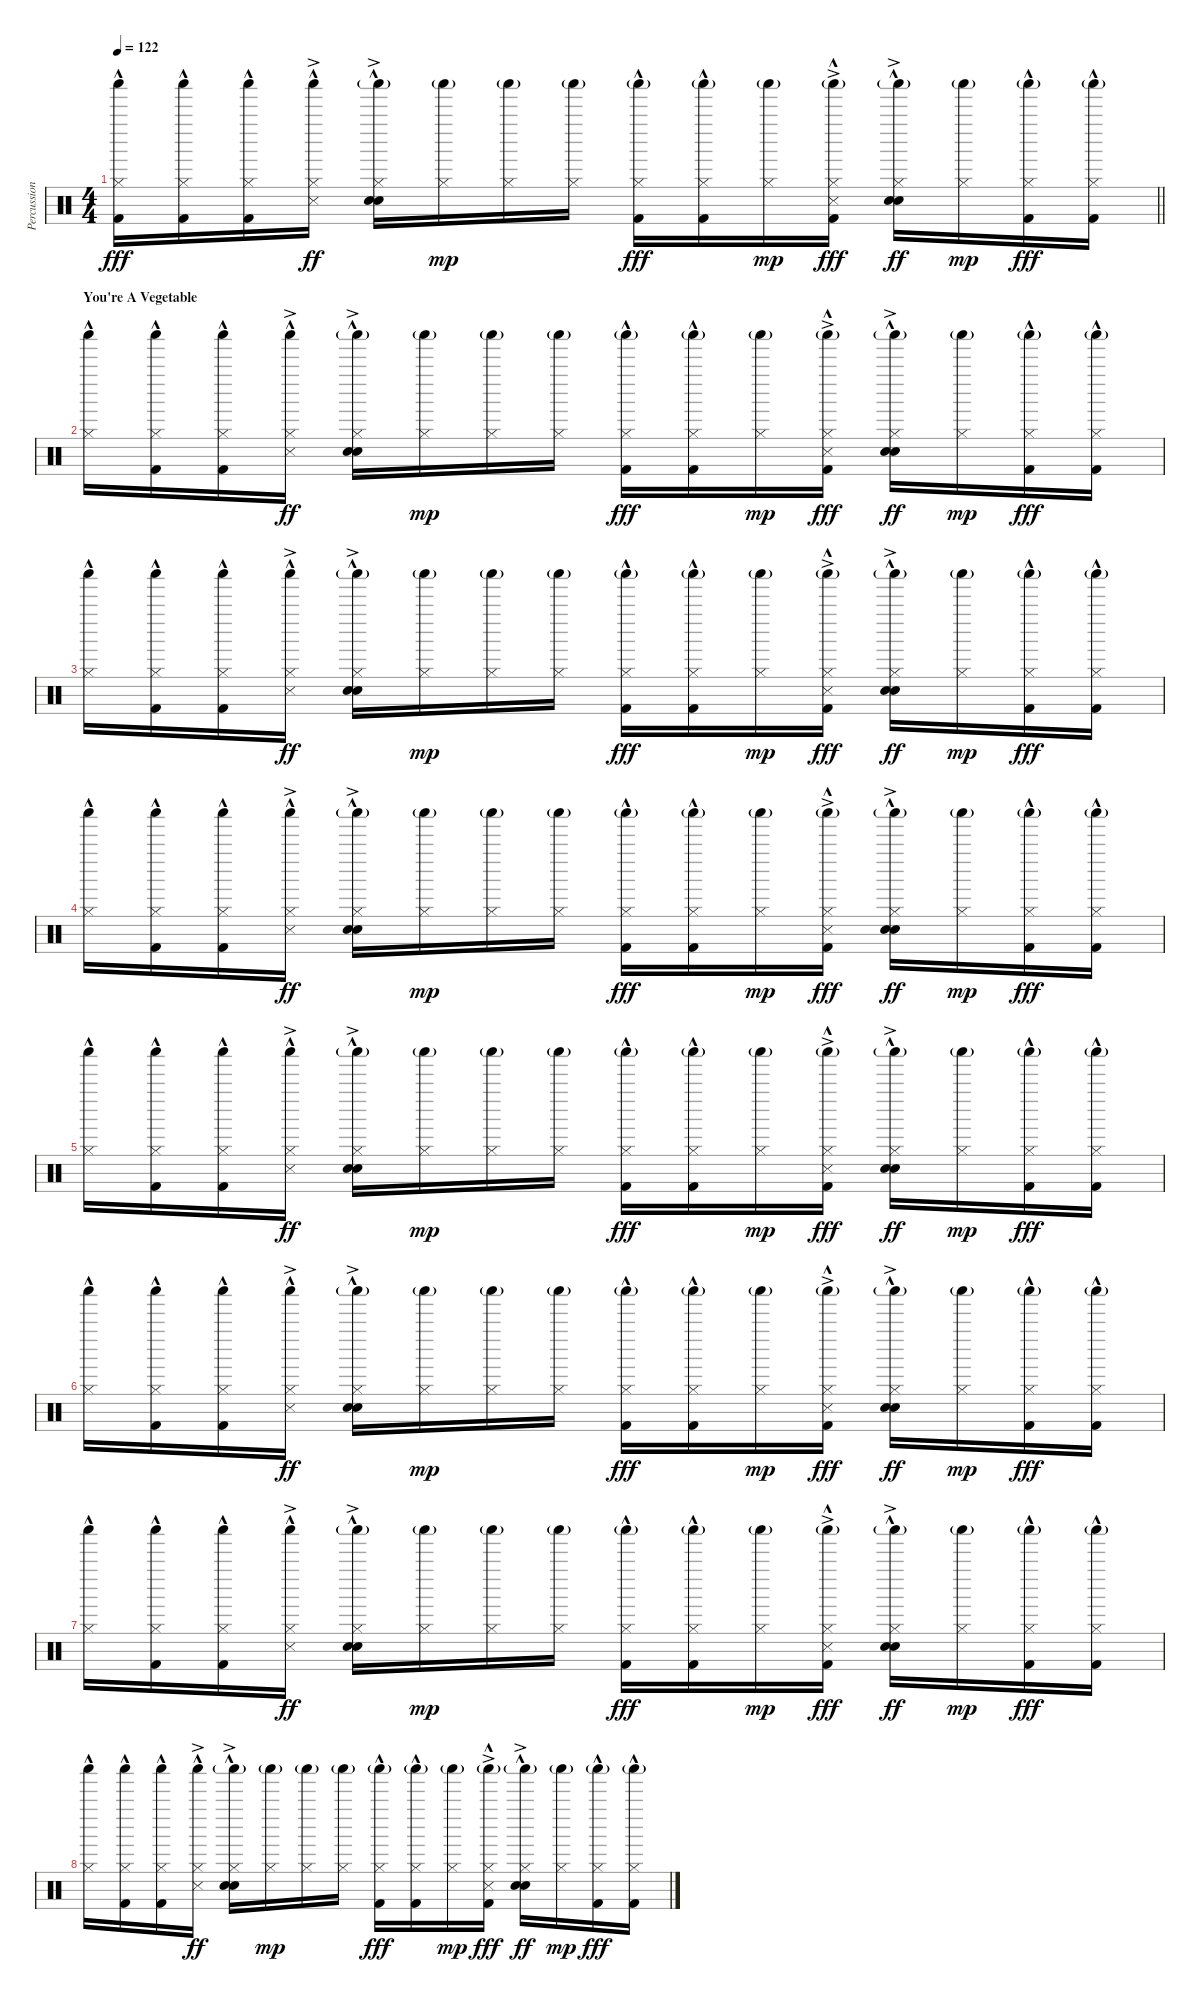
\track ("Percussion" "Percussion") {instrument percussion}
\staff {score}
\articulation defaults
\ts (4 4)
\tempo 122
\clef neutral
\barLineRight lightlight
\ks c
("Shaker (hit)" "Hi-Hat (closed)"{hac} "Kick (hit) 2").16{dy fff} ("Shaker (hit)" "Hi-Hat (closed)"{hac} "Kick (hit) 2"{hac}).16 ("Shaker (hit)" "Hi-Hat (closed)"{hac} "Kick (hit) 2"{hac}).16 ("Shaker (hit)" "Hi-Hat (closed)"{hac} "Snare (side stick) 3"{ac}).16{dy ff} ("Shaker (hit)"{g} "Hi-Hat (closed)" "Hand Clap (hit)"{hac} "Snare (hit) 2"{ac}).16 ("Shaker (hit)"{g} "Hi-Hat (closed)").16{dy mp} ("Shaker (hit)"{g} "Hi-Hat (closed)").16 ("Shaker (hit)"{g} "Hi-Hat (closed)").16 ("Shaker (hit)"{g} "Hi-Hat (closed)" "Kick (hit) 2"{hac}).16{dy fff} ("Shaker (hit)"{g} "Hi-Hat (closed)" "Kick (hit) 2"{hac}).16 ("Shaker (hit)"{g} "Hi-Hat (closed)").16{dy mp} ("Shaker (hit)"{g} "Hi-Hat (closed)" "Snare (side stick) 3"{ac} "Kick (hit) 2"{hac}).16{dy fff} ("Shaker (hit)"{g} "Hi-Hat (closed)" "Hand Clap (hit)"{hac} "Snare (hit) 2"{ac}).16{dy ff} ("Shaker (hit)"{g} "Hi-Hat (closed)").16{dy mp} ("Shaker (hit)"{g} "Hi-Hat (closed)" "Kick (hit) 2"{hac}).16{dy fff} ("Shaker (hit)"{g} "Hi-Hat (closed)" "Kick (hit) 2"{hac}).16 |
\section ("" "You're A Vegetable")
("Shaker (hit)" "Hi-Hat (closed)"{hac}).16 ("Shaker (hit)" "Hi-Hat (closed)"{hac} "Kick (hit) 2"{hac}).16 ("Shaker (hit)" "Hi-Hat (closed)"{hac} "Kick (hit) 2"{hac}).16 ("Shaker (hit)" "Hi-Hat (closed)"{hac} "Snare (side stick) 3"{ac}).16{dy ff} ("Shaker (hit)"{g} "Hi-Hat (closed)" "Hand Clap (hit)"{hac} "Snare (hit) 2"{ac}).16 ("Shaker (hit)"{g} "Hi-Hat (closed)").16{dy mp} ("Shaker (hit)"{g} "Hi-Hat (closed)").16 ("Shaker (hit)"{g} "Hi-Hat (closed)").16 ("Shaker (hit)"{g} "Hi-Hat (closed)" "Kick (hit) 2"{hac}).16{dy fff} ("Shaker (hit)"{g} "Hi-Hat (closed)" "Kick (hit) 2"{hac}).16 ("Shaker (hit)"{g} "Hi-Hat (closed)").16{dy mp} ("Shaker (hit)"{g} "Hi-Hat (closed)" "Snare (side stick) 3"{ac} "Kick (hit) 2"{hac}).16{dy fff} ("Shaker (hit)"{g} "Hi-Hat (closed)" "Hand Clap (hit)"{hac} "Snare (hit) 2"{ac}).16{dy ff} ("Shaker (hit)"{g} "Hi-Hat (closed)").16{dy mp} ("Shaker (hit)"{g} "Hi-Hat (closed)" "Kick (hit) 2"{hac}).16{dy fff} ("Shaker (hit)"{g} "Hi-Hat (closed)" "Kick (hit) 2"{hac}).16 |
("Shaker (hit)" "Hi-Hat (closed)"{hac}).16 ("Shaker (hit)" "Hi-Hat (closed)"{hac} "Kick (hit) 2"{hac}).16 ("Shaker (hit)" "Hi-Hat (closed)"{hac} "Kick (hit) 2"{hac}).16 ("Shaker (hit)" "Hi-Hat (closed)"{hac} "Snare (side stick) 3"{ac}).16{dy ff} ("Shaker (hit)"{g} "Hi-Hat (closed)" "Hand Clap (hit)"{hac} "Snare (hit) 2"{ac}).16 ("Shaker (hit)"{g} "Hi-Hat (closed)").16{dy mp} ("Shaker (hit)"{g} "Hi-Hat (closed)").16 ("Shaker (hit)"{g} "Hi-Hat (closed)").16 ("Shaker (hit)"{g} "Hi-Hat (closed)" "Kick (hit) 2"{hac}).16{dy fff} ("Shaker (hit)"{g} "Hi-Hat (closed)" "Kick (hit) 2"{hac}).16 ("Shaker (hit)"{g} "Hi-Hat (closed)").16{dy mp} ("Shaker (hit)"{g} "Hi-Hat (closed)" "Snare (side stick) 3"{ac} "Kick (hit) 2"{hac}).16{dy fff} ("Shaker (hit)"{g} "Hi-Hat (closed)" "Hand Clap (hit)"{hac} "Snare (hit) 2"{ac}).16{dy ff} ("Shaker (hit)"{g} "Hi-Hat (closed)").16{dy mp} ("Shaker (hit)"{g} "Hi-Hat (closed)" "Kick (hit) 2"{hac}).16{dy fff} ("Shaker (hit)"{g} "Hi-Hat (closed)" "Kick (hit) 2"{hac}).16 |
("Shaker (hit)" "Hi-Hat (closed)"{hac}).16 ("Shaker (hit)" "Hi-Hat (closed)"{hac} "Kick (hit) 2"{hac}).16 ("Shaker (hit)" "Hi-Hat (closed)"{hac} "Kick (hit) 2"{hac}).16 ("Shaker (hit)" "Hi-Hat (closed)"{hac} "Snare (side stick) 3"{ac}).16{dy ff} ("Shaker (hit)"{g} "Hi-Hat (closed)" "Hand Clap (hit)"{hac} "Snare (hit) 2"{ac}).16 ("Shaker (hit)"{g} "Hi-Hat (closed)").16{dy mp} ("Shaker (hit)"{g} "Hi-Hat (closed)").16 ("Shaker (hit)"{g} "Hi-Hat (closed)").16 ("Shaker (hit)"{g} "Hi-Hat (closed)" "Kick (hit) 2"{hac}).16{dy fff} ("Shaker (hit)"{g} "Hi-Hat (closed)" "Kick (hit) 2"{hac}).16 ("Shaker (hit)"{g} "Hi-Hat (closed)").16{dy mp} ("Shaker (hit)"{g} "Hi-Hat (closed)" "Snare (side stick) 3"{ac} "Kick (hit) 2"{hac}).16{dy fff} ("Shaker (hit)"{g} "Hi-Hat (closed)" "Hand Clap (hit)"{hac} "Snare (hit) 2"{ac}).16{dy ff} ("Shaker (hit)"{g} "Hi-Hat (closed)").16{dy mp} ("Shaker (hit)"{g} "Hi-Hat (closed)" "Kick (hit) 2"{hac}).16{dy fff} ("Shaker (hit)"{g} "Hi-Hat (closed)" "Kick (hit) 2"{hac}).16 |
("Shaker (hit)" "Hi-Hat (closed)"{hac}).16 ("Shaker (hit)" "Hi-Hat (closed)"{hac} "Kick (hit) 2"{hac}).16 ("Shaker (hit)" "Hi-Hat (closed)"{hac} "Kick (hit) 2"{hac}).16 ("Shaker (hit)" "Hi-Hat (closed)"{hac} "Snare (side stick) 3"{ac}).16{dy ff} ("Shaker (hit)"{g} "Hi-Hat (closed)" "Hand Clap (hit)"{hac} "Snare (hit) 2"{ac}).16 ("Shaker (hit)"{g} "Hi-Hat (closed)").16{dy mp} ("Shaker (hit)"{g} "Hi-Hat (closed)").16 ("Shaker (hit)"{g} "Hi-Hat (closed)").16 ("Shaker (hit)"{g} "Hi-Hat (closed)" "Kick (hit) 2"{hac}).16{dy fff} ("Shaker (hit)"{g} "Hi-Hat (closed)" "Kick (hit) 2"{hac}).16 ("Shaker (hit)"{g} "Hi-Hat (closed)").16{dy mp} ("Shaker (hit)"{g} "Hi-Hat (closed)" "Snare (side stick) 3"{ac} "Kick (hit) 2"{hac}).16{dy fff} ("Shaker (hit)"{g} "Hi-Hat (closed)" "Hand Clap (hit)"{hac} "Snare (hit) 2"{ac}).16{dy ff} ("Shaker (hit)"{g} "Hi-Hat (closed)").16{dy mp} ("Shaker (hit)"{g} "Hi-Hat (closed)" "Kick (hit) 2"{hac}).16{dy fff} ("Shaker (hit)"{g} "Hi-Hat (closed)" "Kick (hit) 2"{hac}).16 |
("Shaker (hit)" "Hi-Hat (closed)"{hac}).16 ("Shaker (hit)" "Hi-Hat (closed)"{hac} "Kick (hit) 2"{hac}).16 ("Shaker (hit)" "Hi-Hat (closed)"{hac} "Kick (hit) 2"{hac}).16 ("Shaker (hit)" "Hi-Hat (closed)"{hac} "Snare (side stick) 3"{ac}).16{dy ff} ("Shaker (hit)"{g} "Hi-Hat (closed)" "Hand Clap (hit)"{hac} "Snare (hit) 2"{ac}).16 ("Shaker (hit)"{g} "Hi-Hat (closed)").16{dy mp} ("Shaker (hit)"{g} "Hi-Hat (closed)").16 ("Shaker (hit)"{g} "Hi-Hat (closed)").16 ("Shaker (hit)"{g} "Hi-Hat (closed)" "Kick (hit) 2"{hac}).16{dy fff} ("Shaker (hit)"{g} "Hi-Hat (closed)" "Kick (hit) 2"{hac}).16 ("Shaker (hit)"{g} "Hi-Hat (closed)").16{dy mp} ("Shaker (hit)"{g} "Hi-Hat (closed)" "Snare (side stick) 3"{ac} "Kick (hit) 2"{hac}).16{dy fff} ("Shaker (hit)"{g} "Hi-Hat (closed)" "Hand Clap (hit)"{hac} "Snare (hit) 2"{ac}).16{dy ff} ("Shaker (hit)"{g} "Hi-Hat (closed)").16{dy mp} ("Shaker (hit)"{g} "Hi-Hat (closed)" "Kick (hit) 2"{hac}).16{dy fff} ("Shaker (hit)"{g} "Hi-Hat (closed)" "Kick (hit) 2"{hac}).16 |
("Shaker (hit)" "Hi-Hat (closed)"{hac}).16 ("Shaker (hit)" "Hi-Hat (closed)"{hac} "Kick (hit) 2"{hac}).16 ("Shaker (hit)" "Hi-Hat (closed)"{hac} "Kick (hit) 2"{hac}).16 ("Shaker (hit)" "Hi-Hat (closed)"{hac} "Snare (side stick) 3"{ac}).16{dy ff} ("Shaker (hit)"{g} "Hi-Hat (closed)" "Hand Clap (hit)"{hac} "Snare (hit) 2"{ac}).16 ("Shaker (hit)"{g} "Hi-Hat (closed)").16{dy mp} ("Shaker (hit)"{g} "Hi-Hat (closed)").16 ("Shaker (hit)"{g} "Hi-Hat (closed)").16 ("Shaker (hit)"{g} "Hi-Hat (closed)" "Kick (hit) 2"{hac}).16{dy fff} ("Shaker (hit)"{g} "Hi-Hat (closed)" "Kick (hit) 2"{hac}).16 ("Shaker (hit)"{g} "Hi-Hat (closed)").16{dy mp} ("Shaker (hit)"{g} "Hi-Hat (closed)" "Snare (side stick) 3"{ac} "Kick (hit) 2"{hac}).16{dy fff} ("Shaker (hit)"{g} "Hi-Hat (closed)" "Hand Clap (hit)"{hac} "Snare (hit) 2"{ac}).16{dy ff} ("Shaker (hit)"{g} "Hi-Hat (closed)").16{dy mp} ("Shaker (hit)"{g} "Hi-Hat (closed)" "Kick (hit) 2"{hac}).16{dy fff} ("Shaker (hit)"{g} "Hi-Hat (closed)" "Kick (hit) 2"{hac}).16 |
("Shaker (hit)" "Hi-Hat (closed)"{hac}).16 ("Shaker (hit)" "Hi-Hat (closed)"{hac} "Kick (hit) 2"{hac}).16 ("Shaker (hit)" "Hi-Hat (closed)"{hac} "Kick (hit) 2"{hac}).16 ("Shaker (hit)" "Hi-Hat (closed)"{hac} "Snare (side stick) 3"{ac}).16{dy ff} ("Shaker (hit)"{g} "Hi-Hat (closed)" "Hand Clap (hit)"{hac} "Snare (hit) 2"{ac}).16 ("Shaker (hit)"{g} "Hi-Hat (closed)").16{dy mp} ("Shaker (hit)"{g} "Hi-Hat (closed)").16 ("Shaker (hit)"{g} "Hi-Hat (closed)").16 ("Shaker (hit)"{g} "Hi-Hat (closed)" "Kick (hit) 2"{hac}).16{dy fff} ("Shaker (hit)"{g} "Hi-Hat (closed)" "Kick (hit) 2"{hac}).16 ("Shaker (hit)"{g} "Hi-Hat (closed)").16{dy mp} ("Shaker (hit)"{g} "Hi-Hat (closed)" "Snare (side stick) 3"{ac} "Kick (hit) 2"{hac}).16{dy fff} ("Shaker (hit)"{g} "Hi-Hat (closed)" "Hand Clap (hit)"{hac} "Snare (hit) 2"{ac}).16{dy ff} ("Shaker (hit)"{g} "Hi-Hat (closed)").16{dy mp} ("Shaker (hit)"{g} "Hi-Hat (closed)" "Kick (hit) 2"{hac}).16{dy fff} ("Shaker (hit)"{g} "Hi-Hat (closed)" "Kick (hit) 2"{hac}).16
